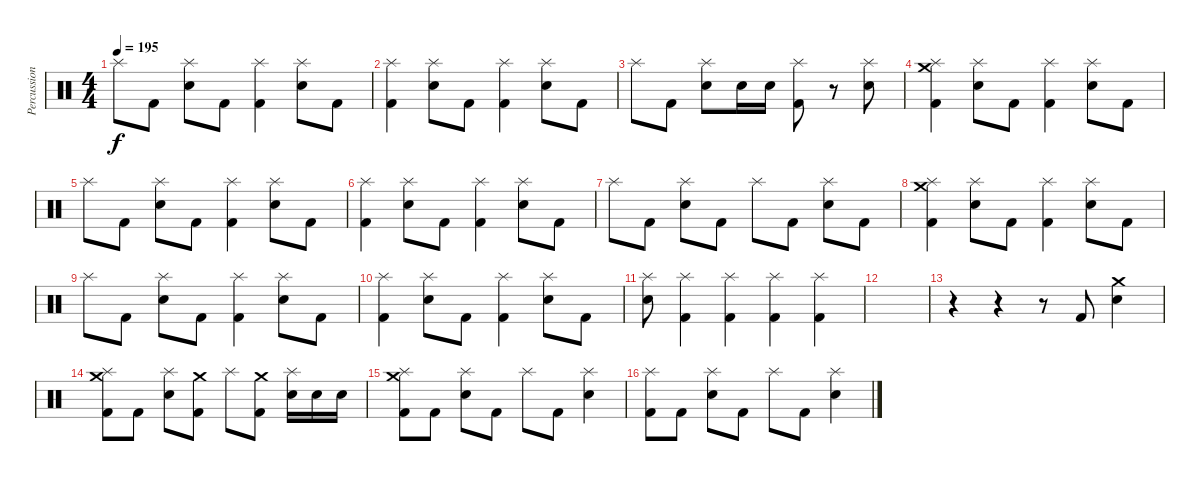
\track ("Percussion" "Percussion") {instrument percussion}
\staff {score}
\articulation defaults
\ts (4 4)
\tempo 195
\clef neutral
\ks c "Splash (hit)".8{dy f} "Kick (hit) 2".8
("Splash (hit)" "Electric Snare (hit)").8 "Kick (hit) 2".8 ("Splash (hit)" "Kick (hit) 2").4 ("Splash (hit)" "Electric Snare (hit)").8 "Kick (hit) 2".8 |
("Splash (hit)" "Kick (hit) 2").4 ("Splash (hit)" "Electric Snare (hit)").8 "Kick (hit) 2".8 ("Splash (hit)" "Kick (hit) 2").4 ("Splash (hit)" "Electric Snare (hit)").8 "Kick (hit) 2".8 |
"Splash (hit)".8 "Kick (hit) 2".8 ("Splash (hit)" "Electric Snare (hit)").8 "Electric Snare (hit)".16{volume 11} "Electric Snare (hit)".16 ("Splash (hit)" "Kick (hit) 2").8{volume 13} r.8 ("Splash (hit)" "Electric Snare (hit)").8 |
("Crash medium (hit)" "Splash (hit)" "Kick (hit) 2").4 ("Splash (hit)" "Electric Snare (hit)").8 "Kick (hit) 2".8 ("Splash (hit)" "Kick (hit) 2").4 ("Splash (hit)" "Electric Snare (hit)").8 "Kick (hit) 2".8 |
"Splash (hit)".8 "Kick (hit) 2".8 ("Splash (hit)" "Electric Snare (hit)").8 "Kick (hit) 2".8 ("Splash (hit)" "Kick (hit) 2").4 ("Splash (hit)" "Electric Snare (hit)").8 "Kick (hit) 2".8 |
("Splash (hit)" "Kick (hit) 2").4 ("Splash (hit)" "Electric Snare (hit)").8 "Kick (hit) 2".8 ("Splash (hit)" "Kick (hit) 2").4 ("Splash (hit)" "Electric Snare (hit)").8 "Kick (hit) 2".8 |
"Splash (hit)".8 "Kick (hit) 2".8 ("Splash (hit)" "Electric Snare (hit)").8 "Kick (hit) 2".8 "Splash (hit)".8 "Kick (hit) 2".8 ("Splash (hit)" "Electric Snare (hit)").8 "Kick (hit) 2".8 |
("Crash medium (hit)" "Splash (hit)" "Kick (hit) 2").4 ("Splash (hit)" "Electric Snare (hit)").8 "Kick (hit) 2".8 ("Splash (hit)" "Kick (hit) 2").4 ("Splash (hit)" "Electric Snare (hit)").8 "Kick (hit) 2".8 |
"Splash (hit)".8 "Kick (hit) 2".8 ("Splash (hit)" "Electric Snare (hit)").8 "Kick (hit) 2".8 ("Splash (hit)" "Kick (hit) 2").4 ("Splash (hit)" "Electric Snare (hit)").8 "Kick (hit) 2".8 |
("Splash (hit)" "Kick (hit) 2").4 ("Splash (hit)" "Electric Snare (hit)").8 "Kick (hit) 2".8 ("Splash (hit)" "Kick (hit) 2").4 ("Splash (hit)" "Electric Snare (hit)").8 "Kick (hit) 2".8 |
("Splash (hit)" "Electric Snare (hit)").8 ("Splash (hit)" "Kick (hit) 2").4 ("Splash (hit)" "Kick (hit) 2").4 ("Splash (hit)" "Kick (hit) 2").4{volume 13} ("Splash (hit)" "Kick (hit) 2").4 |
|
r.4 r.4 r.8 "Kick (hit) 2".8 ("Crash medium (hit)" "Electric Snare (hit)").4 |
("Crash medium (hit)" "Splash (hit)" "Kick (hit) 2").8 "Kick (hit) 2".8 ("Splash (hit)" "Electric Snare (hit)").8 ("Crash medium (hit)" "Kick (hit) 2").8 "Splash (hit)".8 ("Crash medium (hit)" "Kick (hit) 2").8 ("Splash (hit)" "Electric Snare (hit)").16 "Electric Snare (hit)".16{volume 11} "Electric Snare (hit)".16 |
("Crash medium (hit)" "Splash (hit)" "Kick (hit) 2").8{volume 13} "Kick (hit) 2".8 ("Splash (hit)" "Electric Snare (hit)").8 "Kick (hit) 2".8 "Splash (hit)".8 "Kick (hit) 2".8 ("Splash (hit)" "Electric Snare (hit)").4 |
("Splash (hit)" "Kick (hit) 2").8 "Kick (hit) 2".8 ("Splash (hit)" "Electric Snare (hit)").8 "Kick (hit) 2".8 "Splash (hit)".8 "Kick (hit) 2".8 ("Splash (hit)" "Electric Snare (hit)").4
